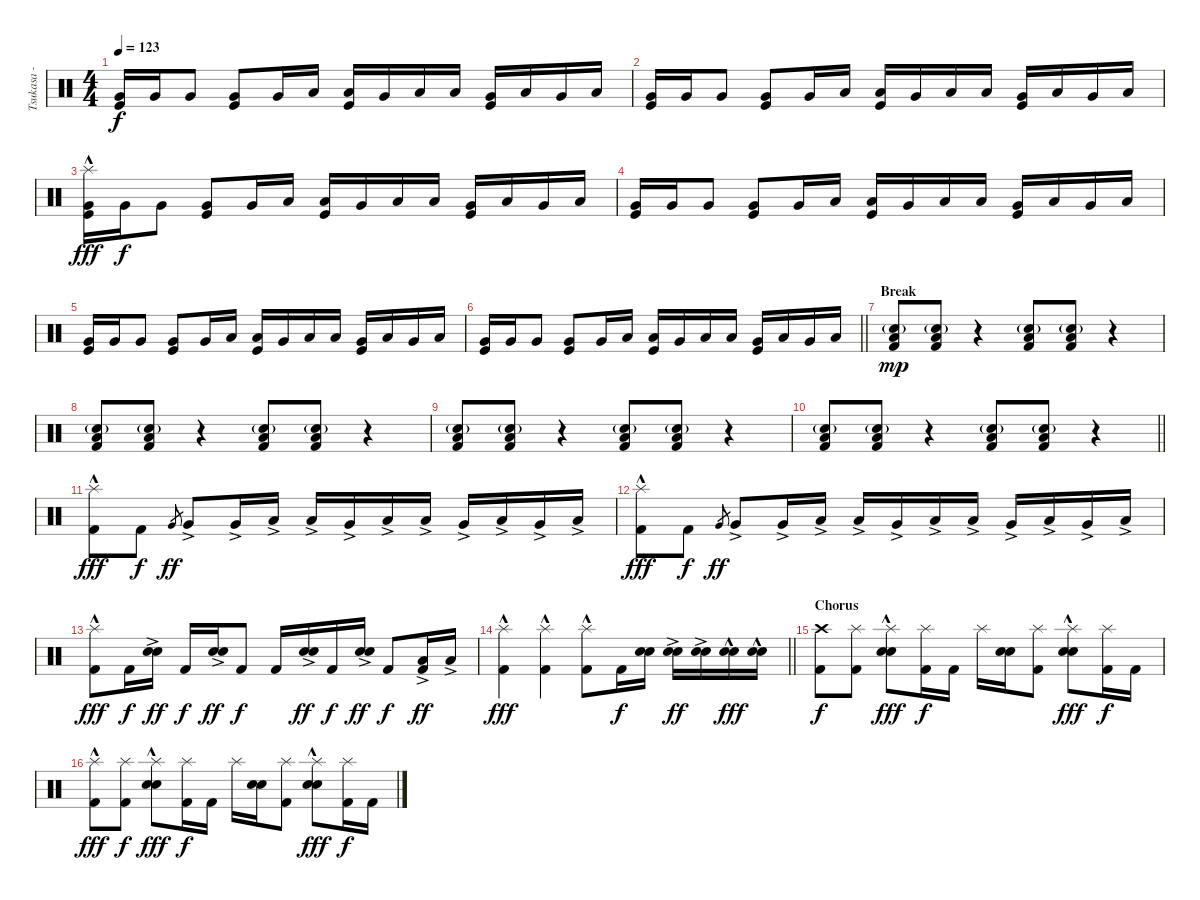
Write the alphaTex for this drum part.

\track ("Tsukasa - Drums" "Tsukasa - ") {instrument percussion}
\staff {score}
\articulation defaults
\ts (4 4)
\tempo 123
\clef neutral
\ks c
("Very Low Tom (hit)" "Kick (hit)").16{dy f} "Very Low Tom (hit)".16 "Very Low Tom (hit)".8 ("Very Low Tom (hit)" "Kick (hit)").8 "Very Low Tom (hit)".16 "Low Tom (hit)".16 ("Low Tom (hit)" "Kick (hit)").16 "Very Low Tom (hit)".16 "Low Floor Tom (hit)".16 "Low Floor Tom (hit)".16 ("Very Low Tom (hit)" "Kick (hit)").16 "Low Floor Tom (hit)".16 "Very Low Tom (hit)".16 "Low Floor Tom (hit)".16 |
("Very Low Tom (hit)" "Kick (hit)").16 "Very Low Tom (hit)".16 "Very Low Tom (hit)".8 ("Very Low Tom (hit)" "Kick (hit)").8 "Very Low Tom (hit)".16 "Low Tom (hit)".16 ("Low Tom (hit)" "Kick (hit)").16 "Very Low Tom (hit)".16 "Low Floor Tom (hit)".16 "Low Floor Tom (hit)".16 ("Very Low Tom (hit)" "Kick (hit)").16 "Low Floor Tom (hit)".16 "Very Low Tom (hit)".16 "Low Floor Tom (hit)".16 |
("Splash (hit)"{hac} "Very Low Tom (hit)" "Kick (hit)").16{dy fff} "Very Low Tom (hit)".16{dy f} "Very Low Tom (hit)".8 ("Very Low Tom (hit)" "Kick (hit)").8 "Very Low Tom (hit)".16 "Low Tom (hit)".16 ("Low Tom (hit)" "Kick (hit)").16 "Very Low Tom (hit)".16 "Low Floor Tom (hit)".16 "Low Floor Tom (hit)".16 ("Very Low Tom (hit)" "Kick (hit)").16 "Low Floor Tom (hit)".16 "Very Low Tom (hit)".16 "Low Floor Tom (hit)".16 |
("Very Low Tom (hit)" "Kick (hit)").16 "Very Low Tom (hit)".16 "Very Low Tom (hit)".8 ("Very Low Tom (hit)" "Kick (hit)").8 "Very Low Tom (hit)".16 "Low Tom (hit)".16 ("Low Tom (hit)" "Kick (hit)").16 "Very Low Tom (hit)".16 "Low Floor Tom (hit)".16 "Low Floor Tom (hit)".16 ("Very Low Tom (hit)" "Kick (hit)").16 "Low Floor Tom (hit)".16 "Very Low Tom (hit)".16 "Low Floor Tom (hit)".16 |
("Very Low Tom (hit)" "Kick (hit)").16 "Very Low Tom (hit)".16 "Very Low Tom (hit)".8 ("Very Low Tom (hit)" "Kick (hit)").8 "Very Low Tom (hit)".16 "Low Tom (hit)".16 ("Low Tom (hit)" "Kick (hit)").16 "Very Low Tom (hit)".16 "Low Floor Tom (hit)".16 "Low Floor Tom (hit)".16 ("Very Low Tom (hit)" "Kick (hit)").16 "Low Floor Tom (hit)".16 "Very Low Tom (hit)".16 "Low Floor Tom (hit)".16 |
\barLineRight lightlight
("Very Low Tom (hit)" "Kick (hit)").16 "Very Low Tom (hit)".16 "Very Low Tom (hit)".8 ("Very Low Tom (hit)" "Kick (hit)").8 "Very Low Tom (hit)".16 "Low Tom (hit)".16 ("Low Tom (hit)" "Kick (hit)").16 "Very Low Tom (hit)".16 "Low Floor Tom (hit)".16 "Low Floor Tom (hit)".16 ("Very Low Tom (hit)" "Kick (hit)").16 "Low Floor Tom (hit)".16 "Very Low Tom (hit)".16 "Low Floor Tom (hit)".16 |
\section ("" "Break")
("Electric Snare (hit)"{g} "Low Tom (hit)" "Kick (hit) 2").8{dy mp} ("Electric Snare (hit)"{g} "Low Tom (hit)" "Kick (hit) 2").8 r.4 ("Electric Snare (hit)"{g} "Low Tom (hit)" "Kick (hit) 2").8 ("Electric Snare (hit)"{g} "Low Tom (hit)" "Kick (hit) 2").8 r.4 |
("Electric Snare (hit)"{g} "Low Tom (hit)" "Kick (hit) 2").8 ("Electric Snare (hit)"{g} "Low Tom (hit)" "Kick (hit) 2").8 r.4 ("Electric Snare (hit)"{g} "Low Tom (hit)" "Kick (hit) 2").8 ("Electric Snare (hit)"{g} "Low Tom (hit)" "Kick (hit) 2").8 r.4 |
("Electric Snare (hit)"{g} "Low Tom (hit)" "Kick (hit) 2").8 ("Electric Snare (hit)"{g} "Low Tom (hit)" "Kick (hit) 2").8 r.4 ("Electric Snare (hit)"{g} "Low Tom (hit)" "Kick (hit) 2").8 ("Electric Snare (hit)"{g} "Low Tom (hit)" "Kick (hit) 2").8 r.4 |
\barLineRight lightlight
("Electric Snare (hit)"{g} "Low Tom (hit)" "Kick (hit) 2").8 ("Electric Snare (hit)"{g} "Low Tom (hit)" "Kick (hit) 2").8 r.4 ("Electric Snare (hit)"{g} "Low Tom (hit)" "Kick (hit) 2").8 ("Electric Snare (hit)"{g} "Low Tom (hit)" "Kick (hit) 2").8 r.4 |
\section ("" "")
("Splash (hit)"{hac} "Kick (hit) 2").8{dy fff} "Kick (hit) 2".8{dy f} "Very Low Tom (hit)".8{gr dy ff} "Very Low Tom (hit)"{ac}.8 "Very Low Tom (hit)"{ac}.16 "Low Tom (hit)"{ac}.16 "Low Tom (hit)"{ac}.16 "Very Low Tom (hit)"{ac}.16 "Low Floor Tom (hit)"{ac}.16 "Low Floor Tom (hit)"{ac}.16 "Very Low Tom (hit)"{ac}.16 "Low Floor Tom (hit)"{ac}.16 "Very Low Tom (hit)"{ac}.16 "Low Floor Tom (hit)"{ac}.16 |
("Splash (hit)"{hac} "Kick (hit) 2").8{dy fff} "Kick (hit) 2".8{dy f} "Very Low Tom (hit)".8{gr dy ff} "Very Low Tom (hit)"{ac}.8 "Very Low Tom (hit)"{ac}.16 "Low Tom (hit)"{ac}.16 "Low Tom (hit)"{ac}.16 "Very Low Tom (hit)"{ac}.16 "Low Floor Tom (hit)"{ac}.16 "Low Floor Tom (hit)"{ac}.16 "Very Low Tom (hit)"{ac}.16 "Low Floor Tom (hit)"{ac}.16 "Very Low Tom (hit)"{ac}.16 "Low Floor Tom (hit)"{ac}.16 |
("Splash (hit)"{hac} "Kick (hit) 2").8{dy fff} "Kick (hit) 2".16{dy f} ("Electric Snare (hit)"{ac} "Snare (hit) 2").16{dy ff} "Kick (hit) 2".16{dy f} ("Electric Snare (hit)"{ac} "Snare (hit) 2").16{dy ff} "Kick (hit) 2".8{dy f} "Kick (hit) 2".16 ("Electric Snare (hit)"{ac} "Snare (hit) 2").16{dy ff} "Kick (hit) 2".16{dy f} ("Electric Snare (hit)"{ac} "Snare (hit) 2").16{dy ff} "Kick (hit) 2".8{dy f} ("Low Tom (hit)"{ac} "Kick (hit) 2").16{dy ff} "Low Tom (hit)"{ac}.16 |
\barLineRight lightlight
("Splash (hit)"{hac} "Kick (hit) 2").4{dy fff} ("Splash (hit)"{hac} "Kick (hit) 2").4 ("Splash (hit)"{hac} "Kick (hit) 2").8 "Kick (hit) 2".16{dy f} ("Electric Snare (hit)" "Snare (hit) 2").16 ("Electric Snare (hit)"{ac} "Snare (hit) 2").16{dy ff} ("Electric Snare (hit)"{ac} "Snare (hit) 2").16 ("Electric Snare (hit)"{hac} "Snare (hit) 2").16{dy fff} ("Electric Snare (hit)"{hac} "Snare (hit) 2").16 |
\section ("" "Chorus")
("Crash high (hit)" "Kick (hit) 2").8{dy f} ("Splash (hit)" "Kick (hit) 2").8 ("Splash (hit)" "Electric Snare (hit)"{hac} "Snare (hit) 2").8{dy fff} ("Splash (hit)" "Kick (hit) 2").16{dy f} "Kick (hit) 2".16 "Splash (hit)".16 ("Electric Snare (hit)" "Snare (hit) 2").16 ("Splash (hit)" "Kick (hit) 2").8 ("Splash (hit)" "Electric Snare (hit)"{hac} "Snare (hit) 2").8{dy fff} ("Splash (hit)" "Kick (hit) 2").16{dy f} "Kick (hit) 2".16 |
("Splash (hit)"{hac} "Kick (hit) 2").8{dy fff} ("Splash (hit)" "Kick (hit) 2").8{dy f} ("Splash (hit)" "Electric Snare (hit)"{hac} "Snare (hit) 2").8{dy fff} ("Splash (hit)" "Kick (hit) 2").16{dy f} "Kick (hit) 2".16 "Splash (hit)".16 ("Electric Snare (hit)" "Snare (hit) 2").16 ("Splash (hit)" "Kick (hit) 2").8 ("Splash (hit)" "Electric Snare (hit)"{hac} "Snare (hit) 2").8{dy fff} ("Splash (hit)" "Kick (hit) 2").16{dy f} "Kick (hit) 2".16
